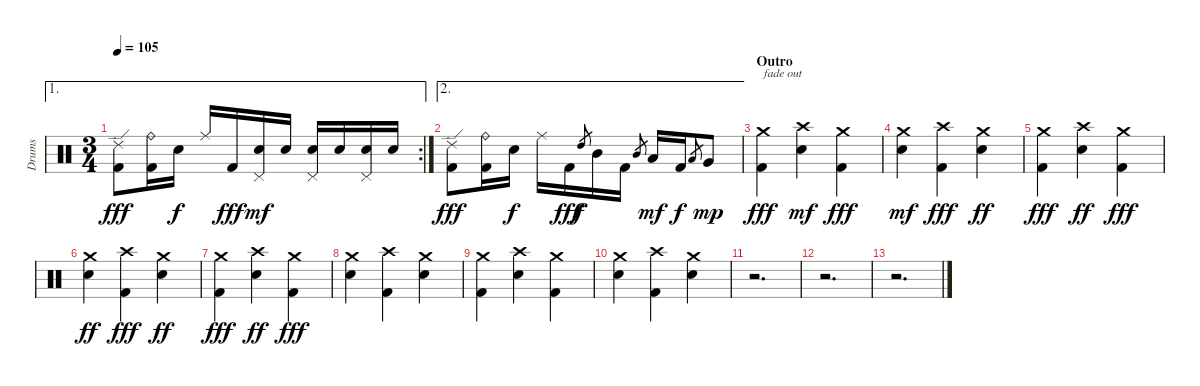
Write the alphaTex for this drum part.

\track ("Drums" "Drums") {instrument percussion}
\staff {score}
\articulation defaults
\ae 1
\rc 2
\ts (3 4)
\tempo 105
\clef neutral
\ks c
("Ride (edge) 2" "Kick (hit) 2").8{dy fff} ("Ride (bell)" "Kick (hit) 2").16 "Electric Snare (hit)".16{dy f} "Ride (middle)".16 "Kick (hit) 2".16{dy fff} ("Pedal Hi-Hat (hit)" "Electric Snare (hit)").16{dy mf} "Electric Snare (hit)".16 ("Pedal Hi-Hat (hit)" "Electric Snare (hit)").16 "Electric Snare (hit)".16 ("Pedal Hi-Hat (hit)" "Electric Snare (hit)").16 "Electric Snare (hit)".16 |
\ae 2
("Ride (edge) 2" "Kick (hit) 2").8{dy fff} ("Ride (bell)" "Kick (hit) 2").16 "Electric Snare (hit)".16{dy f} "Ride (middle)".16 "Kick (hit) 2".16{dy fff} "High Tom (hit)".8{gr dy f} "Mid Tom (hit)".16 "Kick (hit) 2".16 "Mid Tom (hit)".8{gr} "Low Tom (hit)".16{dy mf} "Kick (hit) 2".16{dy f} "Low Tom (hit)".8{gr} "Very Low Tom (hit)".8{dy mp} |
\section ("" "Outro")
("Crash medium (hit)" "Kick (hit) 2").4{txt "fade out" dy fff volume 5} ("Crash high (hit)" "Electric Snare (hit)").4{dy mf} ("Crash medium (hit)" "Kick (hit) 2").4{dy fff} |
("Crash medium (hit)" "Electric Snare (hit)").4{dy mf} ("Crash high (hit)" "Kick (hit) 2").4{dy fff} ("Crash medium (hit)" "Electric Snare (hit)").4{dy ff} |
("Crash medium (hit)" "Kick (hit) 2").4{dy fff} ("Crash high (hit)" "Electric Snare (hit)").4{dy ff} ("Crash medium (hit)" "Kick (hit) 2").4{dy fff} |
("Crash medium (hit)" "Electric Snare (hit)").4{dy ff} ("Crash high (hit)" "Kick (hit) 2").4{dy fff} ("Crash medium (hit)" "Electric Snare (hit)").4{dy ff} |
("Crash medium (hit)" "Kick (hit) 2").4{dy fff volume 1} ("Crash high (hit)" "Electric Snare (hit)").4{dy ff} ("Crash medium (hit)" "Kick (hit) 2").4{dy fff} |
("Crash medium (hit)" "Electric Snare (hit)").4 ("Crash high (hit)" "Kick (hit) 2").4 ("Crash medium (hit)" "Electric Snare (hit)").4 |
("Crash medium (hit)" "Kick (hit) 2").4 ("Crash high (hit)" "Electric Snare (hit)").4 ("Crash medium (hit)" "Kick (hit) 2").4 |
("Crash medium (hit)" "Electric Snare (hit)").4 ("Crash high (hit)" "Kick (hit) 2").4 ("Crash medium (hit)" "Electric Snare (hit)").4 |
r.2{d} |
r.2{d} |
r.2{d}
